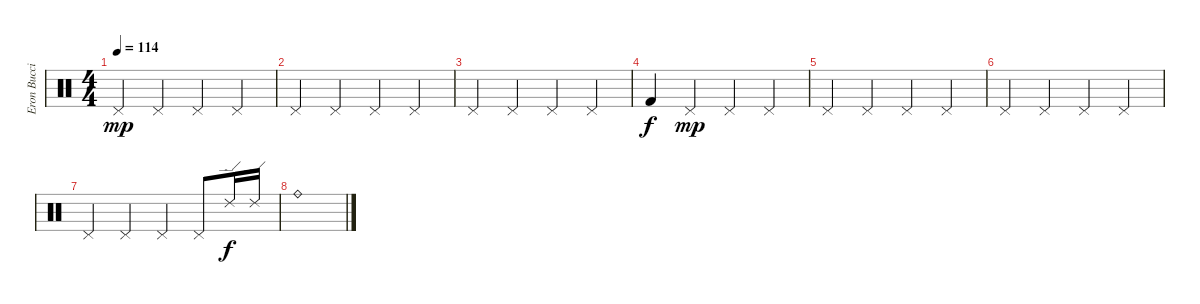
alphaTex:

\track ("Eron Bucciarelli (Drums)" "Eron Bucci") {instrument percussion}
\staff {score}
\articulation defaults
\ts (4 4)
\tempo 114
\clef neutral
\ks c "Pedal Hi-Hat (hit)".4{dy mp} "Pedal Hi-Hat (hit)".4 "Pedal Hi-Hat (hit)".4 "Pedal Hi-Hat (hit)".4
|
"Pedal Hi-Hat (hit)".4 "Pedal Hi-Hat (hit)".4 "Pedal Hi-Hat (hit)".4 "Pedal Hi-Hat (hit)".4 |
"Pedal Hi-Hat (hit)".4 "Pedal Hi-Hat (hit)".4 "Pedal Hi-Hat (hit)".4 "Pedal Hi-Hat (hit)".4 |
"Kick (hit) 2".4{dy f} "Pedal Hi-Hat (hit)".4{dy mp} "Pedal Hi-Hat (hit)".4 "Pedal Hi-Hat (hit)".4 |
"Pedal Hi-Hat (hit)".4 "Pedal Hi-Hat (hit)".4 "Pedal Hi-Hat (hit)".4 "Pedal Hi-Hat (hit)".4 |
"Pedal Hi-Hat (hit)".4 "Pedal Hi-Hat (hit)".4 "Pedal Hi-Hat (hit)".4 "Pedal Hi-Hat (hit)".4 |
"Pedal Hi-Hat (hit)".4 "Pedal Hi-Hat (hit)".4 "Pedal Hi-Hat (hit)".4 "Pedal Hi-Hat (hit)".8 "Ride (edge) 2".16{dy f} "Ride (edge) 2".16 |
"Ride (bell)".1
